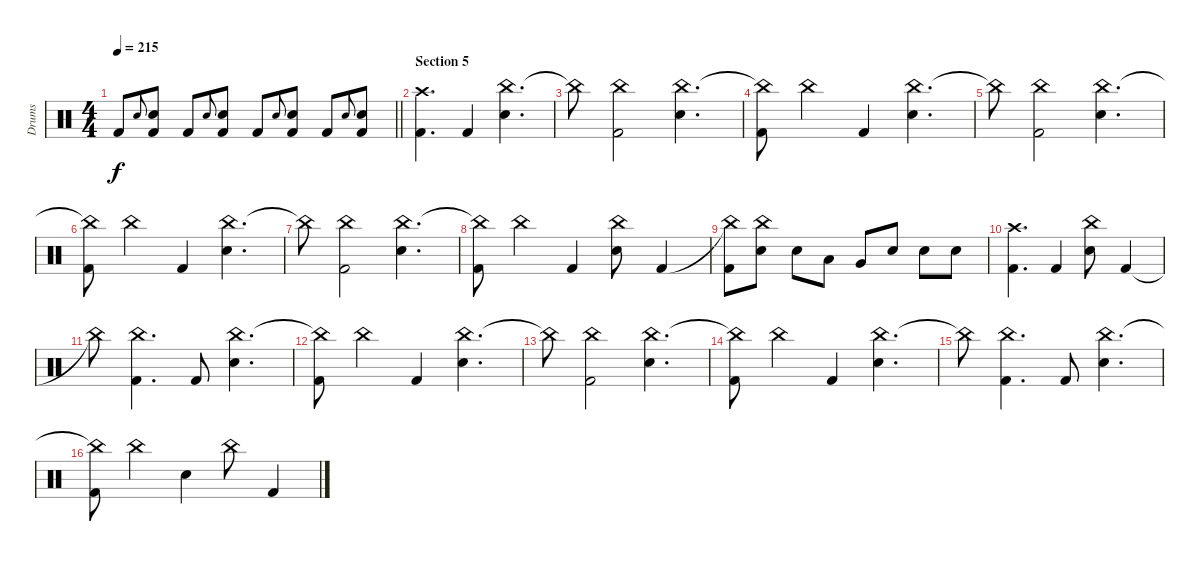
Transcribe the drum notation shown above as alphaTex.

\track ("Drums" "Drums") {instrument percussion}
\staff {score}
\articulation defaults
\ts (4 4)
\tempo 215
\clef neutral
\barLineRight lightlight
\ks c "Kick (hit) 2".8{dy f} "Snare (hit) 2"{h}.8{gr onbeat}
("Snare (hit) 2" "Kick (hit) 2").8 "Kick (hit) 2".8 "Snare (hit) 2"{h}.8{gr onbeat} ("Snare (hit) 2" "Kick (hit) 2").8 "Kick (hit) 2".8 "Snare (hit) 2"{h}.8{gr onbeat} ("Snare (hit) 2" "Kick (hit) 2").8 "Kick (hit) 2".8 "Snare (hit) 2"{h}.8{gr onbeat} ("Snare (hit) 2" "Kick (hit) 2").8 |
\section ("" "Section 5")
("Crash high (hit)" "Kick (hit) 2").4{d} "Kick (hit) 2".4 ("China (hit)" "Snare (hit) 2").4{d} |
"China (hit)"{t}.8 ("China (hit)" "Kick (hit) 2").2 ("China (hit)" "Snare (hit) 2").4{d} |
("China (hit)"{t} "Kick (hit) 2").8 "China (hit)".4 "Kick (hit) 2".4 ("China (hit)" "Snare (hit) 2").4{d} |
"China (hit)"{t}.8 ("China (hit)" "Kick (hit) 2").2 ("China (hit)" "Snare (hit) 2").4{d} |
("China (hit)"{t} "Kick (hit) 2").8 "China (hit)".4 "Kick (hit) 2".4 ("China (hit)" "Snare (hit) 2").4{d} |
"China (hit)"{t}.8 ("China (hit)" "Kick (hit) 2").2 ("China (hit)" "Snare (hit) 2").4{d} |
("China (hit)"{t} "Kick (hit) 2").8 "China (hit)".4 "Kick (hit) 2".4 ("China (hit)" "Snare (hit) 2").8 "Kick (hit) 2".4 |
("China (hit)"{t} "Kick (hit) 2").8 ("China (hit)" "Snare (hit) 2").8 "Snare (hit) 2".8 "Low Tom (hit)".8 "Very Low Tom (hit)".8 "Snare (hit) 2".8 "Snare (hit) 2".8 "Snare (hit) 2".8 |
("Crash high (hit)" "Kick (hit) 2").4{d} "Kick (hit) 2".4 ("China (hit)" "Snare (hit) 2").8 "Kick (hit) 2".4 |
"China (hit)"{t}.8 ("China (hit)" "Kick (hit) 2").4{d} "Kick (hit) 2".8 ("China (hit)" "Snare (hit) 2").4{d} |
("China (hit)"{t} "Kick (hit) 2").8 "China (hit)".4 "Kick (hit) 2".4 ("China (hit)" "Snare (hit) 2").4{d} |
"China (hit)"{t}.8 ("China (hit)" "Kick (hit) 2").2 ("China (hit)" "Snare (hit) 2").4{d} |
("China (hit)"{t} "Kick (hit) 2").8 "China (hit)".4 "Kick (hit) 2".4 ("China (hit)" "Snare (hit) 2").4{d} |
"China (hit)"{t}.8 ("China (hit)" "Kick (hit) 2").4{d} "Kick (hit) 2".8 ("China (hit)" "Snare (hit) 2").4{d} |
("China (hit)"{t} "Kick (hit) 2").8 "China (hit)".4 "Snare (hit) 2".4 "China (hit)".8 "Kick (hit) 2".4
